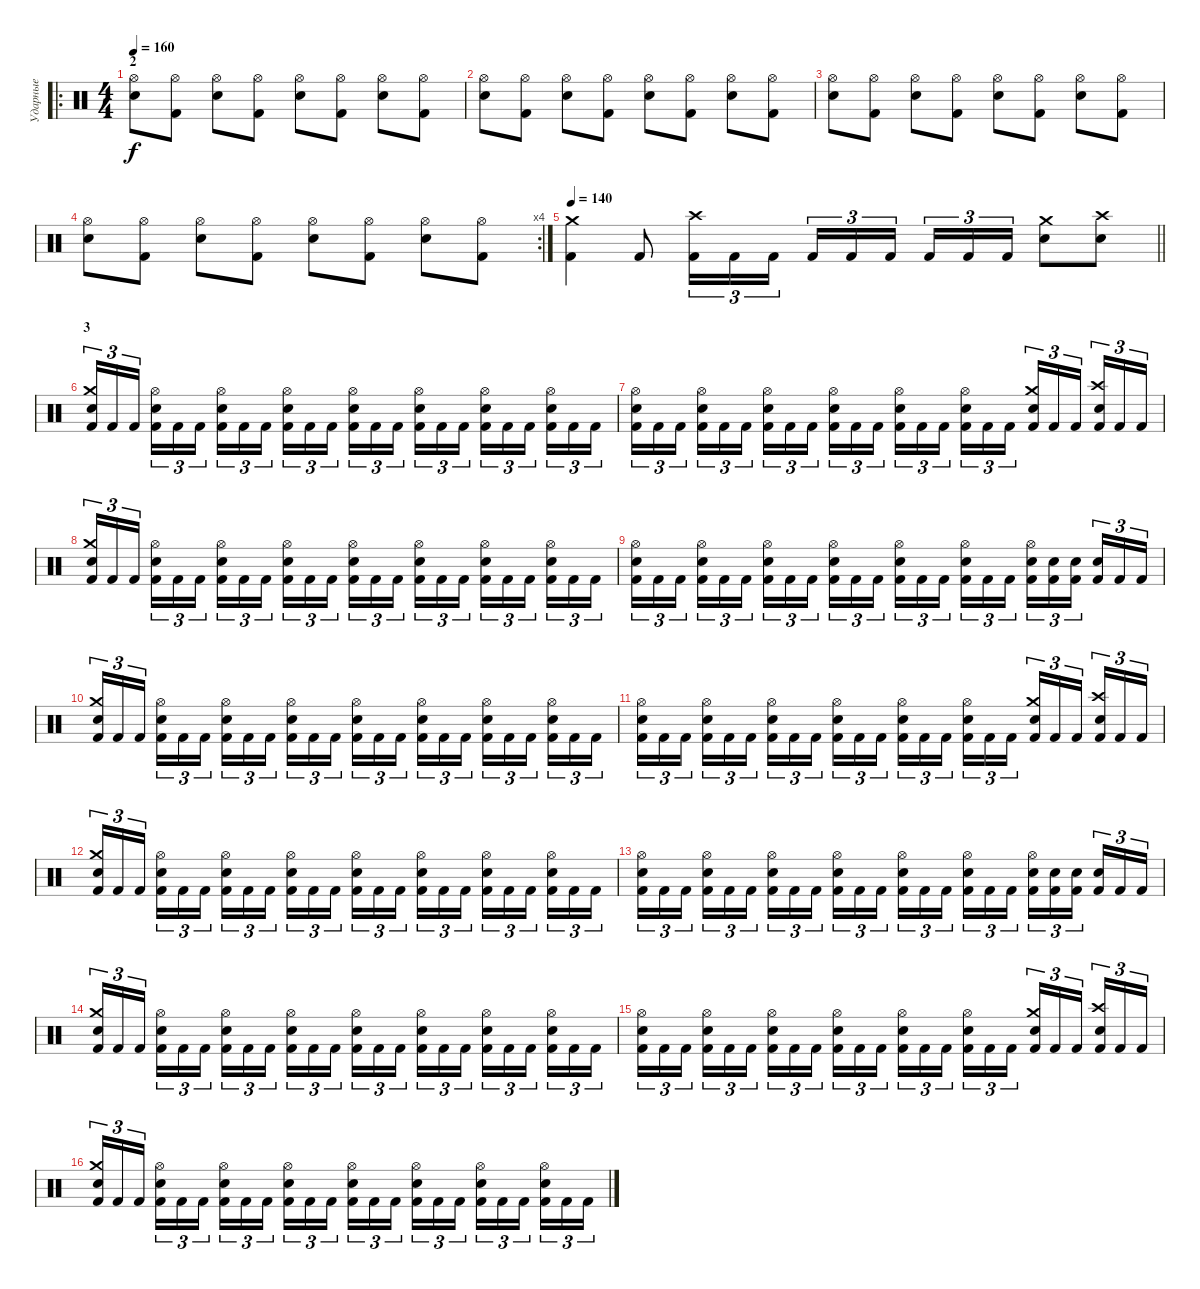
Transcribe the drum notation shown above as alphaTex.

\track ("Ударные" "Ударные") {instrument percussion}
\staff {score}
\articulation defaults
\ro
\ts (4 4)
\section ("" "2")
\tempo 160
\clef neutral
\ks c
("Hi-Hat (open)" "Snare (hit) 2").8{dy f} ("Hi-Hat (open)" "Kick (hit) 2").8 ("Hi-Hat (open)" "Snare (hit) 2").8 ("Hi-Hat (open)" "Kick (hit) 2").8 ("Hi-Hat (open)" "Snare (hit) 2").8 ("Hi-Hat (open)" "Kick (hit) 2").8 ("Hi-Hat (open)" "Snare (hit) 2").8 ("Hi-Hat (open)" "Kick (hit) 2").8 |
("Hi-Hat (open)" "Snare (hit) 2").8 ("Hi-Hat (open)" "Kick (hit) 2").8 ("Hi-Hat (open)" "Snare (hit) 2").8 ("Hi-Hat (open)" "Kick (hit) 2").8 ("Hi-Hat (open)" "Snare (hit) 2").8 ("Hi-Hat (open)" "Kick (hit) 2").8 ("Hi-Hat (open)" "Snare (hit) 2").8 ("Hi-Hat (open)" "Kick (hit) 2").8 |
("Hi-Hat (open)" "Snare (hit) 2").8 ("Hi-Hat (open)" "Kick (hit) 2").8 ("Hi-Hat (open)" "Snare (hit) 2").8 ("Hi-Hat (open)" "Kick (hit) 2").8 ("Hi-Hat (open)" "Snare (hit) 2").8 ("Hi-Hat (open)" "Kick (hit) 2").8 ("Hi-Hat (open)" "Snare (hit) 2").8 ("Hi-Hat (open)" "Kick (hit) 2").8 |
\rc 4
("Hi-Hat (open)" "Snare (hit) 2").8 ("Hi-Hat (open)" "Kick (hit) 2").8 ("Hi-Hat (open)" "Snare (hit) 2").8 ("Hi-Hat (open)" "Kick (hit) 2").8 ("Hi-Hat (open)" "Snare (hit) 2").8 ("Hi-Hat (open)" "Kick (hit) 2").8 ("Hi-Hat (open)" "Snare (hit) 2").8 ("Hi-Hat (open)" "Kick (hit) 2").8 |
\tempo 140
\barLineRight lightlight
("Kick (hit) 2" "Crash medium (hit)").4 "Kick (hit) 2".8 ("Kick (hit) 2" "Crash high (hit)").16{tu (3 2)} "Kick (hit) 2".16{tu (3 2)} "Kick (hit) 2".16{tu (3 2)} "Kick (hit) 2".16{tu (3 2)} "Kick (hit) 2".16{tu (3 2)} "Kick (hit) 2".16{tu (3 2) beam splitsecondary} "Kick (hit) 2".16{tu (3 2)} "Kick (hit) 2".16{tu (3 2)} "Kick (hit) 2".16{tu (3 2)} ("Electric Snare (hit)" "Crash medium (hit)").8 ("Electric Snare (hit)" "Crash high (hit)").8 |
\section ("" "3")
("Kick (hit) 2" "Electric Snare (hit)" "Crash medium (hit)").16{tu (3 2)} "Kick (hit) 2".16{tu (3 2)} "Kick (hit) 2".16{tu (3 2) beam splitsecondary} ("Kick (hit) 2" "Electric Snare (hit)" "Hi-Hat (open)").16{tu (3 2)} "Kick (hit) 2".16{tu (3 2)} "Kick (hit) 2".16{tu (3 2)} ("Kick (hit) 2" "Electric Snare (hit)" "Hi-Hat (open)").16{tu (3 2)} "Kick (hit) 2".16{tu (3 2)} "Kick (hit) 2".16{tu (3 2) beam splitsecondary} ("Kick (hit) 2" "Electric Snare (hit)" "Hi-Hat (open)").16{tu (3 2)} "Kick (hit) 2".16{tu (3 2)} "Kick (hit) 2".16{tu (3 2)} ("Kick (hit) 2" "Electric Snare (hit)" "Hi-Hat (open)").16{tu (3 2)} "Kick (hit) 2".16{tu (3 2)} "Kick (hit) 2".16{tu (3 2) beam splitsecondary} ("Kick (hit) 2" "Electric Snare (hit)" "Hi-Hat (open)").16{tu (3 2)} "Kick (hit) 2".16{tu (3 2)} "Kick (hit) 2".16{tu (3 2)} ("Kick (hit) 2" "Electric Snare (hit)" "Hi-Hat (open)").16{tu (3 2)} "Kick (hit) 2".16{tu (3 2)} "Kick (hit) 2".16{tu (3 2) beam splitsecondary} ("Kick (hit) 2" "Electric Snare (hit)" "Hi-Hat (open)").16{tu (3 2)} "Kick (hit) 2".16{tu (3 2)} "Kick (hit) 2".16{tu (3 2)} |
("Kick (hit) 2" "Electric Snare (hit)" "Hi-Hat (open)").16{tu (3 2)} "Kick (hit) 2".16{tu (3 2)} "Kick (hit) 2".16{tu (3 2) beam splitsecondary} ("Kick (hit) 2" "Electric Snare (hit)" "Hi-Hat (open)").16{tu (3 2)} "Kick (hit) 2".16{tu (3 2)} "Kick (hit) 2".16{tu (3 2)} ("Kick (hit) 2" "Electric Snare (hit)" "Hi-Hat (open)").16{tu (3 2)} "Kick (hit) 2".16{tu (3 2)} "Kick (hit) 2".16{tu (3 2) beam splitsecondary} ("Kick (hit) 2" "Electric Snare (hit)" "Hi-Hat (open)").16{tu (3 2)} "Kick (hit) 2".16{tu (3 2)} "Kick (hit) 2".16{tu (3 2)} ("Kick (hit) 2" "Electric Snare (hit)" "Hi-Hat (open)").16{tu (3 2)} "Kick (hit) 2".16{tu (3 2)} "Kick (hit) 2".16{tu (3 2) beam splitsecondary} ("Kick (hit) 2" "Electric Snare (hit)" "Hi-Hat (open)").16{tu (3 2)} "Kick (hit) 2".16{tu (3 2)} "Kick (hit) 2".16{tu (3 2)} ("Kick (hit) 2" "Electric Snare (hit)" "Crash medium (hit)").16{tu (3 2)} "Kick (hit) 2".16{tu (3 2)} "Kick (hit) 2".16{tu (3 2) beam splitsecondary} ("Kick (hit) 2" "Electric Snare (hit)" "Crash high (hit)").16{tu (3 2)} "Kick (hit) 2".16{tu (3 2)} "Kick (hit) 2".16{tu (3 2)} |
("Kick (hit) 2" "Electric Snare (hit)" "Crash medium (hit)").16{tu (3 2)} "Kick (hit) 2".16{tu (3 2)} "Kick (hit) 2".16{tu (3 2) beam splitsecondary} ("Kick (hit) 2" "Electric Snare (hit)" "Hi-Hat (open)").16{tu (3 2)} "Kick (hit) 2".16{tu (3 2)} "Kick (hit) 2".16{tu (3 2)} ("Kick (hit) 2" "Electric Snare (hit)" "Hi-Hat (open)").16{tu (3 2)} "Kick (hit) 2".16{tu (3 2)} "Kick (hit) 2".16{tu (3 2) beam splitsecondary} ("Kick (hit) 2" "Electric Snare (hit)" "Hi-Hat (open)").16{tu (3 2)} "Kick (hit) 2".16{tu (3 2)} "Kick (hit) 2".16{tu (3 2)} ("Kick (hit) 2" "Electric Snare (hit)" "Hi-Hat (open)").16{tu (3 2)} "Kick (hit) 2".16{tu (3 2)} "Kick (hit) 2".16{tu (3 2) beam splitsecondary} ("Kick (hit) 2" "Electric Snare (hit)" "Hi-Hat (open)").16{tu (3 2)} "Kick (hit) 2".16{tu (3 2)} "Kick (hit) 2".16{tu (3 2)} ("Kick (hit) 2" "Electric Snare (hit)" "Hi-Hat (open)").16{tu (3 2)} "Kick (hit) 2".16{tu (3 2)} "Kick (hit) 2".16{tu (3 2) beam splitsecondary} ("Kick (hit) 2" "Electric Snare (hit)" "Hi-Hat (open)").16{tu (3 2)} "Kick (hit) 2".16{tu (3 2)} "Kick (hit) 2".16{tu (3 2)} |
("Kick (hit) 2" "Electric Snare (hit)" "Hi-Hat (open)").16{tu (3 2)} "Kick (hit) 2".16{tu (3 2)} "Kick (hit) 2".16{tu (3 2) beam splitsecondary} ("Kick (hit) 2" "Electric Snare (hit)" "Hi-Hat (open)").16{tu (3 2)} "Kick (hit) 2".16{tu (3 2)} "Kick (hit) 2".16{tu (3 2)} ("Kick (hit) 2" "Electric Snare (hit)" "Hi-Hat (open)").16{tu (3 2)} "Kick (hit) 2".16{tu (3 2)} "Kick (hit) 2".16{tu (3 2) beam splitsecondary} ("Kick (hit) 2" "Electric Snare (hit)" "Hi-Hat (open)").16{tu (3 2)} "Kick (hit) 2".16{tu (3 2)} "Kick (hit) 2".16{tu (3 2)} ("Kick (hit) 2" "Electric Snare (hit)" "Hi-Hat (open)").16{tu (3 2)} "Kick (hit) 2".16{tu (3 2)} "Kick (hit) 2".16{tu (3 2) beam splitsecondary} ("Kick (hit) 2" "Electric Snare (hit)" "Hi-Hat (open)").16{tu (3 2)} "Kick (hit) 2".16{tu (3 2)} "Kick (hit) 2".16{tu (3 2)} ("Kick (hit) 2" "Electric Snare (hit)" "Hi-Hat (open)").16{tu (3 2)} ("Kick (hit) 2" "Electric Snare (hit)").16{tu (3 2)} ("Kick (hit) 2" "Electric Snare (hit)").16{tu (3 2) beam splitsecondary} ("Kick (hit) 2" "Electric Snare (hit)").16{tu (3 2)} "Kick (hit) 2".16{tu (3 2)} "Kick (hit) 2".16{tu (3 2)} |
("Kick (hit) 2" "Electric Snare (hit)" "Crash medium (hit)").16{tu (3 2)} "Kick (hit) 2".16{tu (3 2)} "Kick (hit) 2".16{tu (3 2) beam splitsecondary} ("Kick (hit) 2" "Electric Snare (hit)" "Hi-Hat (open)").16{tu (3 2)} "Kick (hit) 2".16{tu (3 2)} "Kick (hit) 2".16{tu (3 2)} ("Kick (hit) 2" "Electric Snare (hit)" "Hi-Hat (open)").16{tu (3 2)} "Kick (hit) 2".16{tu (3 2)} "Kick (hit) 2".16{tu (3 2) beam splitsecondary} ("Kick (hit) 2" "Electric Snare (hit)" "Hi-Hat (open)").16{tu (3 2)} "Kick (hit) 2".16{tu (3 2)} "Kick (hit) 2".16{tu (3 2)} ("Kick (hit) 2" "Electric Snare (hit)" "Hi-Hat (open)").16{tu (3 2)} "Kick (hit) 2".16{tu (3 2)} "Kick (hit) 2".16{tu (3 2) beam splitsecondary} ("Kick (hit) 2" "Electric Snare (hit)" "Hi-Hat (open)").16{tu (3 2)} "Kick (hit) 2".16{tu (3 2)} "Kick (hit) 2".16{tu (3 2)} ("Kick (hit) 2" "Electric Snare (hit)" "Hi-Hat (open)").16{tu (3 2)} "Kick (hit) 2".16{tu (3 2)} "Kick (hit) 2".16{tu (3 2) beam splitsecondary} ("Kick (hit) 2" "Electric Snare (hit)" "Hi-Hat (open)").16{tu (3 2)} "Kick (hit) 2".16{tu (3 2)} "Kick (hit) 2".16{tu (3 2)} |
("Kick (hit) 2" "Electric Snare (hit)" "Hi-Hat (open)").16{tu (3 2)} "Kick (hit) 2".16{tu (3 2)} "Kick (hit) 2".16{tu (3 2) beam splitsecondary} ("Kick (hit) 2" "Electric Snare (hit)" "Hi-Hat (open)").16{tu (3 2)} "Kick (hit) 2".16{tu (3 2)} "Kick (hit) 2".16{tu (3 2)} ("Kick (hit) 2" "Electric Snare (hit)" "Hi-Hat (open)").16{tu (3 2)} "Kick (hit) 2".16{tu (3 2)} "Kick (hit) 2".16{tu (3 2) beam splitsecondary} ("Kick (hit) 2" "Electric Snare (hit)" "Hi-Hat (open)").16{tu (3 2)} "Kick (hit) 2".16{tu (3 2)} "Kick (hit) 2".16{tu (3 2)} ("Kick (hit) 2" "Electric Snare (hit)" "Hi-Hat (open)").16{tu (3 2)} "Kick (hit) 2".16{tu (3 2)} "Kick (hit) 2".16{tu (3 2) beam splitsecondary} ("Kick (hit) 2" "Electric Snare (hit)" "Hi-Hat (open)").16{tu (3 2)} "Kick (hit) 2".16{tu (3 2)} "Kick (hit) 2".16{tu (3 2)} ("Kick (hit) 2" "Electric Snare (hit)" "Crash medium (hit)").16{tu (3 2)} "Kick (hit) 2".16{tu (3 2)} "Kick (hit) 2".16{tu (3 2) beam splitsecondary} ("Kick (hit) 2" "Electric Snare (hit)" "Crash high (hit)").16{tu (3 2)} "Kick (hit) 2".16{tu (3 2)} "Kick (hit) 2".16{tu (3 2)} |
("Kick (hit) 2" "Electric Snare (hit)" "Crash medium (hit)").16{tu (3 2)} "Kick (hit) 2".16{tu (3 2)} "Kick (hit) 2".16{tu (3 2) beam splitsecondary} ("Kick (hit) 2" "Electric Snare (hit)" "Hi-Hat (open)").16{tu (3 2)} "Kick (hit) 2".16{tu (3 2)} "Kick (hit) 2".16{tu (3 2)} ("Kick (hit) 2" "Electric Snare (hit)" "Hi-Hat (open)").16{tu (3 2)} "Kick (hit) 2".16{tu (3 2)} "Kick (hit) 2".16{tu (3 2) beam splitsecondary} ("Kick (hit) 2" "Electric Snare (hit)" "Hi-Hat (open)").16{tu (3 2)} "Kick (hit) 2".16{tu (3 2)} "Kick (hit) 2".16{tu (3 2)} ("Kick (hit) 2" "Electric Snare (hit)" "Hi-Hat (open)").16{tu (3 2)} "Kick (hit) 2".16{tu (3 2)} "Kick (hit) 2".16{tu (3 2) beam splitsecondary} ("Kick (hit) 2" "Electric Snare (hit)" "Hi-Hat (open)").16{tu (3 2)} "Kick (hit) 2".16{tu (3 2)} "Kick (hit) 2".16{tu (3 2)} ("Kick (hit) 2" "Electric Snare (hit)" "Hi-Hat (open)").16{tu (3 2)} "Kick (hit) 2".16{tu (3 2)} "Kick (hit) 2".16{tu (3 2) beam splitsecondary} ("Kick (hit) 2" "Electric Snare (hit)" "Hi-Hat (open)").16{tu (3 2)} "Kick (hit) 2".16{tu (3 2)} "Kick (hit) 2".16{tu (3 2)} |
("Kick (hit) 2" "Electric Snare (hit)" "Hi-Hat (open)").16{tu (3 2)} "Kick (hit) 2".16{tu (3 2)} "Kick (hit) 2".16{tu (3 2) beam splitsecondary} ("Kick (hit) 2" "Electric Snare (hit)" "Hi-Hat (open)").16{tu (3 2)} "Kick (hit) 2".16{tu (3 2)} "Kick (hit) 2".16{tu (3 2)} ("Kick (hit) 2" "Electric Snare (hit)" "Hi-Hat (open)").16{tu (3 2)} "Kick (hit) 2".16{tu (3 2)} "Kick (hit) 2".16{tu (3 2) beam splitsecondary} ("Kick (hit) 2" "Electric Snare (hit)" "Hi-Hat (open)").16{tu (3 2)} "Kick (hit) 2".16{tu (3 2)} "Kick (hit) 2".16{tu (3 2)} ("Kick (hit) 2" "Electric Snare (hit)" "Hi-Hat (open)").16{tu (3 2)} "Kick (hit) 2".16{tu (3 2)} "Kick (hit) 2".16{tu (3 2) beam splitsecondary} ("Kick (hit) 2" "Electric Snare (hit)" "Hi-Hat (open)").16{tu (3 2)} "Kick (hit) 2".16{tu (3 2)} "Kick (hit) 2".16{tu (3 2)} ("Kick (hit) 2" "Electric Snare (hit)" "Hi-Hat (open)").16{tu (3 2)} ("Kick (hit) 2" "Electric Snare (hit)").16{tu (3 2)} ("Kick (hit) 2" "Electric Snare (hit)").16{tu (3 2) beam splitsecondary} ("Kick (hit) 2" "Electric Snare (hit)").16{tu (3 2)} "Kick (hit) 2".16{tu (3 2)} "Kick (hit) 2".16{tu (3 2)} |
("Kick (hit) 2" "Electric Snare (hit)" "Crash medium (hit)").16{tu (3 2)} "Kick (hit) 2".16{tu (3 2)} "Kick (hit) 2".16{tu (3 2) beam splitsecondary} ("Kick (hit) 2" "Electric Snare (hit)" "Hi-Hat (open)").16{tu (3 2)} "Kick (hit) 2".16{tu (3 2)} "Kick (hit) 2".16{tu (3 2)} ("Kick (hit) 2" "Electric Snare (hit)" "Hi-Hat (open)").16{tu (3 2)} "Kick (hit) 2".16{tu (3 2)} "Kick (hit) 2".16{tu (3 2) beam splitsecondary} ("Kick (hit) 2" "Electric Snare (hit)" "Hi-Hat (open)").16{tu (3 2)} "Kick (hit) 2".16{tu (3 2)} "Kick (hit) 2".16{tu (3 2)} ("Kick (hit) 2" "Electric Snare (hit)" "Hi-Hat (open)").16{tu (3 2)} "Kick (hit) 2".16{tu (3 2)} "Kick (hit) 2".16{tu (3 2) beam splitsecondary} ("Kick (hit) 2" "Electric Snare (hit)" "Hi-Hat (open)").16{tu (3 2)} "Kick (hit) 2".16{tu (3 2)} "Kick (hit) 2".16{tu (3 2)} ("Kick (hit) 2" "Electric Snare (hit)" "Hi-Hat (open)").16{tu (3 2)} "Kick (hit) 2".16{tu (3 2)} "Kick (hit) 2".16{tu (3 2) beam splitsecondary} ("Kick (hit) 2" "Electric Snare (hit)" "Hi-Hat (open)").16{tu (3 2)} "Kick (hit) 2".16{tu (3 2)} "Kick (hit) 2".16{tu (3 2)} |
("Kick (hit) 2" "Electric Snare (hit)" "Hi-Hat (open)").16{tu (3 2)} "Kick (hit) 2".16{tu (3 2)} "Kick (hit) 2".16{tu (3 2) beam splitsecondary} ("Kick (hit) 2" "Electric Snare (hit)" "Hi-Hat (open)").16{tu (3 2)} "Kick (hit) 2".16{tu (3 2)} "Kick (hit) 2".16{tu (3 2)} ("Kick (hit) 2" "Electric Snare (hit)" "Hi-Hat (open)").16{tu (3 2)} "Kick (hit) 2".16{tu (3 2)} "Kick (hit) 2".16{tu (3 2) beam splitsecondary} ("Kick (hit) 2" "Electric Snare (hit)" "Hi-Hat (open)").16{tu (3 2)} "Kick (hit) 2".16{tu (3 2)} "Kick (hit) 2".16{tu (3 2)} ("Kick (hit) 2" "Electric Snare (hit)" "Hi-Hat (open)").16{tu (3 2)} "Kick (hit) 2".16{tu (3 2)} "Kick (hit) 2".16{tu (3 2) beam splitsecondary} ("Kick (hit) 2" "Electric Snare (hit)" "Hi-Hat (open)").16{tu (3 2)} "Kick (hit) 2".16{tu (3 2)} "Kick (hit) 2".16{tu (3 2)} ("Kick (hit) 2" "Electric Snare (hit)" "Crash medium (hit)").16{tu (3 2)} "Kick (hit) 2".16{tu (3 2)} "Kick (hit) 2".16{tu (3 2) beam splitsecondary} ("Kick (hit) 2" "Electric Snare (hit)" "Crash high (hit)").16{tu (3 2)} "Kick (hit) 2".16{tu (3 2)} "Kick (hit) 2".16{tu (3 2)} |
("Kick (hit) 2" "Electric Snare (hit)" "Crash medium (hit)").16{tu (3 2)} "Kick (hit) 2".16{tu (3 2)} "Kick (hit) 2".16{tu (3 2) beam splitsecondary} ("Kick (hit) 2" "Electric Snare (hit)" "Hi-Hat (open)").16{tu (3 2)} "Kick (hit) 2".16{tu (3 2)} "Kick (hit) 2".16{tu (3 2)} ("Kick (hit) 2" "Electric Snare (hit)" "Hi-Hat (open)").16{tu (3 2)} "Kick (hit) 2".16{tu (3 2)} "Kick (hit) 2".16{tu (3 2) beam splitsecondary} ("Kick (hit) 2" "Electric Snare (hit)" "Hi-Hat (open)").16{tu (3 2)} "Kick (hit) 2".16{tu (3 2)} "Kick (hit) 2".16{tu (3 2)} ("Kick (hit) 2" "Electric Snare (hit)" "Hi-Hat (open)").16{tu (3 2)} "Kick (hit) 2".16{tu (3 2)} "Kick (hit) 2".16{tu (3 2) beam splitsecondary} ("Kick (hit) 2" "Electric Snare (hit)" "Hi-Hat (open)").16{tu (3 2)} "Kick (hit) 2".16{tu (3 2)} "Kick (hit) 2".16{tu (3 2)} ("Kick (hit) 2" "Electric Snare (hit)" "Hi-Hat (open)").16{tu (3 2)} "Kick (hit) 2".16{tu (3 2)} "Kick (hit) 2".16{tu (3 2) beam splitsecondary} ("Kick (hit) 2" "Electric Snare (hit)" "Hi-Hat (open)").16{tu (3 2)} "Kick (hit) 2".16{tu (3 2)} "Kick (hit) 2".16{tu (3 2)}
